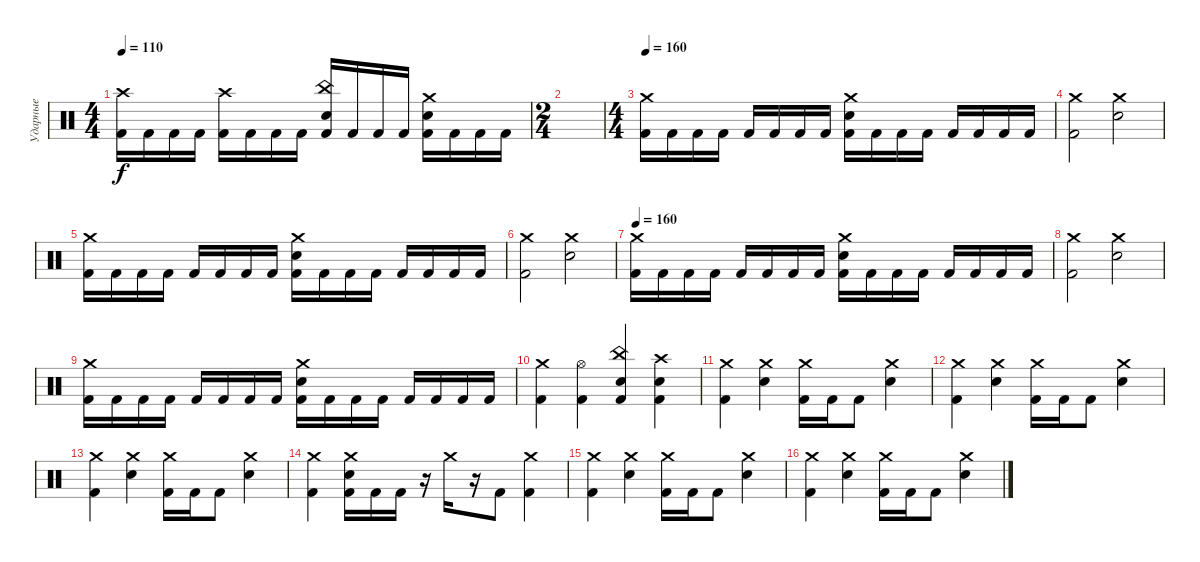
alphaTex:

\track ("Ударные" "Ударные") {instrument percussion}
\staff {score}
\articulation defaults
\ts (4 4)
\tempo 110
\clef neutral
\ks c
("Crash high (hit)" "Kick (hit) 2").16{dy f} "Kick (hit) 2".16 "Kick (hit) 2".16 "Kick (hit) 2".16 ("Crash high (hit)" "Kick (hit) 2").16 "Kick (hit) 2".16 "Kick (hit) 2".16 "Kick (hit) 2".16 ("China (hit)" "Snare (hit) 2" "Kick (hit) 2").16 "Kick (hit) 2".16 "Kick (hit) 2".16 "Kick (hit) 2".16 ("Crash medium (hit)" "Snare (hit) 2" "Kick (hit) 2").16 "Kick (hit) 2".16 "Kick (hit) 2".16 "Kick (hit) 2".16 |
\ts (2 4)
|
\ts (4 4)
\tempo 160
("Crash medium (hit)" "Kick (hit) 2").16 "Kick (hit) 2".16 "Kick (hit) 2".16 "Kick (hit) 2".16 "Kick (hit) 2".16 "Kick (hit) 2".16 "Kick (hit) 2".16 "Kick (hit) 2".16 ("Crash medium (hit)" "Snare (hit) 2" "Kick (hit) 2").16 "Kick (hit) 2".16 "Kick (hit) 2".16 "Kick (hit) 2".16 "Kick (hit) 2".16 "Kick (hit) 2".16 "Kick (hit) 2".16 "Kick (hit) 2".16 |
("Crash medium (hit)" "Kick (hit) 2").2 ("Crash medium (hit)" "Snare (hit) 2").2 |
("Crash medium (hit)" "Kick (hit) 2").16 "Kick (hit) 2".16 "Kick (hit) 2".16 "Kick (hit) 2".16 "Kick (hit) 2".16 "Kick (hit) 2".16 "Kick (hit) 2".16 "Kick (hit) 2".16 ("Crash medium (hit)" "Snare (hit) 2" "Kick (hit) 2").16 "Kick (hit) 2".16 "Kick (hit) 2".16 "Kick (hit) 2".16 "Kick (hit) 2".16 "Kick (hit) 2".16 "Kick (hit) 2".16 "Kick (hit) 2".16 |
("Crash medium (hit)" "Kick (hit) 2").2 ("Crash medium (hit)" "Snare (hit) 2").2 |
\tempo 160
("Crash medium (hit)" "Kick (hit) 2").16 "Kick (hit) 2".16 "Kick (hit) 2".16 "Kick (hit) 2".16 "Kick (hit) 2".16 "Kick (hit) 2".16 "Kick (hit) 2".16 "Kick (hit) 2".16 ("Crash medium (hit)" "Snare (hit) 2" "Kick (hit) 2").16 "Kick (hit) 2".16 "Kick (hit) 2".16 "Kick (hit) 2".16 "Kick (hit) 2".16 "Kick (hit) 2".16 "Kick (hit) 2".16 "Kick (hit) 2".16 |
("Crash medium (hit)" "Kick (hit) 2").2 ("Crash medium (hit)" "Snare (hit) 2").2 |
("Crash medium (hit)" "Kick (hit) 2").16 "Kick (hit) 2".16 "Kick (hit) 2".16 "Kick (hit) 2".16 "Kick (hit) 2".16 "Kick (hit) 2".16 "Kick (hit) 2".16 "Kick (hit) 2".16 ("Crash medium (hit)" "Snare (hit) 2" "Kick (hit) 2").16 "Kick (hit) 2".16 "Kick (hit) 2".16 "Kick (hit) 2".16 "Kick (hit) 2".16 "Kick (hit) 2".16 "Kick (hit) 2".16 "Kick (hit) 2".16 |
("Crash medium (hit)" "Kick (hit) 2").4 ("Hi-Hat (open)" "Kick (hit) 2").4 ("China (hit)" "Snare (hit) 2" "Kick (hit) 2").4 ("Crash high (hit)" "Snare (hit) 2" "Kick (hit) 2").4 |
("Crash medium (hit)" "Kick (hit) 2").4 ("Crash medium (hit)" "Snare (hit) 2").4 ("Crash medium (hit)" "Kick (hit) 2").16 "Kick (hit) 2".16 "Kick (hit) 2".8 ("Crash medium (hit)" "Snare (hit) 2").4 |
("Crash medium (hit)" "Kick (hit) 2").4 ("Crash medium (hit)" "Snare (hit) 2").4 ("Crash medium (hit)" "Kick (hit) 2").16 "Kick (hit) 2".16 "Kick (hit) 2".8 ("Crash medium (hit)" "Snare (hit) 2").4 |
("Crash medium (hit)" "Kick (hit) 2").4 ("Crash medium (hit)" "Snare (hit) 2").4 ("Crash medium (hit)" "Kick (hit) 2").16 "Kick (hit) 2".16 "Kick (hit) 2".8 ("Crash medium (hit)" "Snare (hit) 2").4 |
("Crash medium (hit)" "Kick (hit) 2").4 ("Crash medium (hit)" "Snare (hit) 2" "Kick (hit) 2").16 "Kick (hit) 2".16 "Kick (hit) 2".16 r.16 "Crash medium (hit)".16 r.16 "Kick (hit) 2".8 ("Crash medium (hit)" "Kick (hit) 2").4 |
("Crash medium (hit)" "Kick (hit) 2").4 ("Crash medium (hit)" "Snare (hit) 2").4 ("Crash medium (hit)" "Kick (hit) 2").16 "Kick (hit) 2".16 "Kick (hit) 2".8 ("Crash medium (hit)" "Snare (hit) 2").4 |
("Crash medium (hit)" "Kick (hit) 2").4 ("Crash medium (hit)" "Snare (hit) 2").4 ("Crash medium (hit)" "Kick (hit) 2").16 "Kick (hit) 2".16 "Kick (hit) 2".8 ("Crash medium (hit)" "Snare (hit) 2").4
